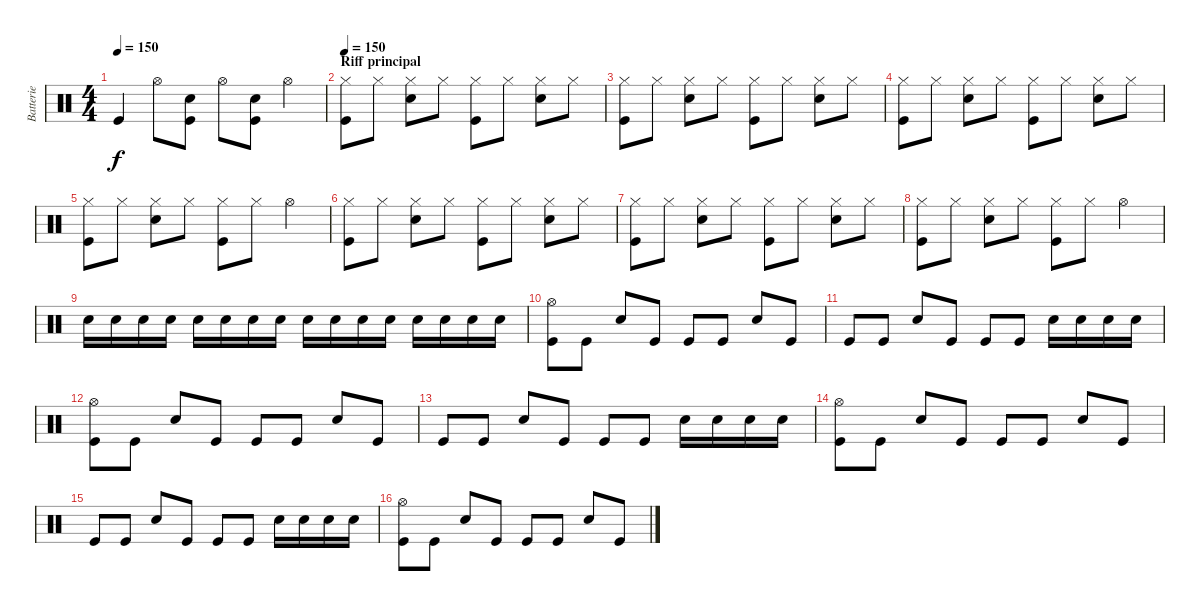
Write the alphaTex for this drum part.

\track ("Batterie" "Batterie") {instrument percussion}
\staff {score}
\articulation defaults
\ts (4 4)
\tempo 150
\clef neutral
\ks c "Kick (hit)".4{dy f} "Hi-Hat (open)".8
("Electric Snare (hit)" "Kick (hit)").8 "Hi-Hat (open)".8 ("Electric Snare (hit)" "Kick (hit)").8 "Hi-Hat (open)".4 |
\section ("" "Riff principal")
\tempo 150
("Hi-Hat (closed)" "Kick (hit)").8 "Hi-Hat (closed)".8 ("Hi-Hat (closed)" "Electric Snare (hit)").8 "Hi-Hat (closed)".8 ("Hi-Hat (closed)" "Kick (hit)").8 "Hi-Hat (closed)".8 ("Hi-Hat (closed)" "Electric Snare (hit)").8 "Hi-Hat (closed)".8 |
("Hi-Hat (closed)" "Kick (hit)").8 "Hi-Hat (closed)".8 ("Hi-Hat (closed)" "Electric Snare (hit)").8 "Hi-Hat (closed)".8 ("Hi-Hat (closed)" "Kick (hit)").8 "Hi-Hat (closed)".8 ("Hi-Hat (closed)" "Electric Snare (hit)").8 "Hi-Hat (closed)".8 |
("Hi-Hat (closed)" "Kick (hit)").8 "Hi-Hat (closed)".8 ("Hi-Hat (closed)" "Electric Snare (hit)").8 "Hi-Hat (closed)".8 ("Hi-Hat (closed)" "Kick (hit)").8 "Hi-Hat (closed)".8 ("Hi-Hat (closed)" "Electric Snare (hit)").8 "Hi-Hat (closed)".8 |
("Hi-Hat (closed)" "Kick (hit)").8 "Hi-Hat (closed)".8 ("Hi-Hat (closed)" "Electric Snare (hit)").8 "Hi-Hat (closed)".8 ("Hi-Hat (closed)" "Kick (hit)").8 "Hi-Hat (closed)".8 "Hi-Hat (open)".4 |
("Hi-Hat (closed)" "Kick (hit)").8 "Hi-Hat (closed)".8 ("Hi-Hat (closed)" "Electric Snare (hit)").8 "Hi-Hat (closed)".8 ("Hi-Hat (closed)" "Kick (hit)").8 "Hi-Hat (closed)".8 ("Hi-Hat (closed)" "Electric Snare (hit)").8 "Hi-Hat (closed)".8 |
("Hi-Hat (closed)" "Kick (hit)").8 "Hi-Hat (closed)".8 ("Hi-Hat (closed)" "Electric Snare (hit)").8 "Hi-Hat (closed)".8 ("Hi-Hat (closed)" "Kick (hit)").8 "Hi-Hat (closed)".8 ("Hi-Hat (closed)" "Electric Snare (hit)").8 "Hi-Hat (closed)".8 |
("Hi-Hat (closed)" "Kick (hit)").8 "Hi-Hat (closed)".8 ("Hi-Hat (closed)" "Electric Snare (hit)").8 "Hi-Hat (closed)".8 ("Hi-Hat (closed)" "Kick (hit)").8 "Hi-Hat (closed)".8 "Hi-Hat (open)".4 |
"Electric Snare (hit)".16 "Electric Snare (hit)".16 "Electric Snare (hit)".16 "Electric Snare (hit)".16 "Electric Snare (hit)".16 "Electric Snare (hit)".16 "Electric Snare (hit)".16 "Electric Snare (hit)".16 "Electric Snare (hit)".16 "Electric Snare (hit)".16 "Electric Snare (hit)".16 "Electric Snare (hit)".16 "Electric Snare (hit)".16 "Electric Snare (hit)".16 "Electric Snare (hit)".16 "Electric Snare (hit)".16 |
("Hi-Hat (open)" "Kick (hit)").8 "Kick (hit)".8 "Electric Snare (hit)".8 "Kick (hit)".8 "Kick (hit)".8 "Kick (hit)".8 "Electric Snare (hit)".8 "Kick (hit)".8 |
"Kick (hit)".8 "Kick (hit)".8 "Electric Snare (hit)".8 "Kick (hit)".8 "Kick (hit)".8 "Kick (hit)".8 "Electric Snare (hit)".16 "Electric Snare (hit)".16 "Electric Snare (hit)".16 "Electric Snare (hit)".16 |
("Hi-Hat (open)" "Kick (hit)").8 "Kick (hit)".8 "Electric Snare (hit)".8 "Kick (hit)".8 "Kick (hit)".8 "Kick (hit)".8 "Electric Snare (hit)".8 "Kick (hit)".8 |
"Kick (hit)".8 "Kick (hit)".8 "Electric Snare (hit)".8 "Kick (hit)".8 "Kick (hit)".8 "Kick (hit)".8 "Electric Snare (hit)".16 "Electric Snare (hit)".16 "Electric Snare (hit)".16 "Electric Snare (hit)".16 |
("Hi-Hat (open)" "Kick (hit)").8 "Kick (hit)".8 "Electric Snare (hit)".8 "Kick (hit)".8 "Kick (hit)".8 "Kick (hit)".8 "Electric Snare (hit)".8 "Kick (hit)".8 |
"Kick (hit)".8 "Kick (hit)".8 "Electric Snare (hit)".8 "Kick (hit)".8 "Kick (hit)".8 "Kick (hit)".8 "Electric Snare (hit)".16 "Electric Snare (hit)".16 "Electric Snare (hit)".16 "Electric Snare (hit)".16 |
("Hi-Hat (open)" "Kick (hit)").8 "Kick (hit)".8 "Electric Snare (hit)".8 "Kick (hit)".8 "Kick (hit)".8 "Kick (hit)".8 "Electric Snare (hit)".8 "Kick (hit)".8
